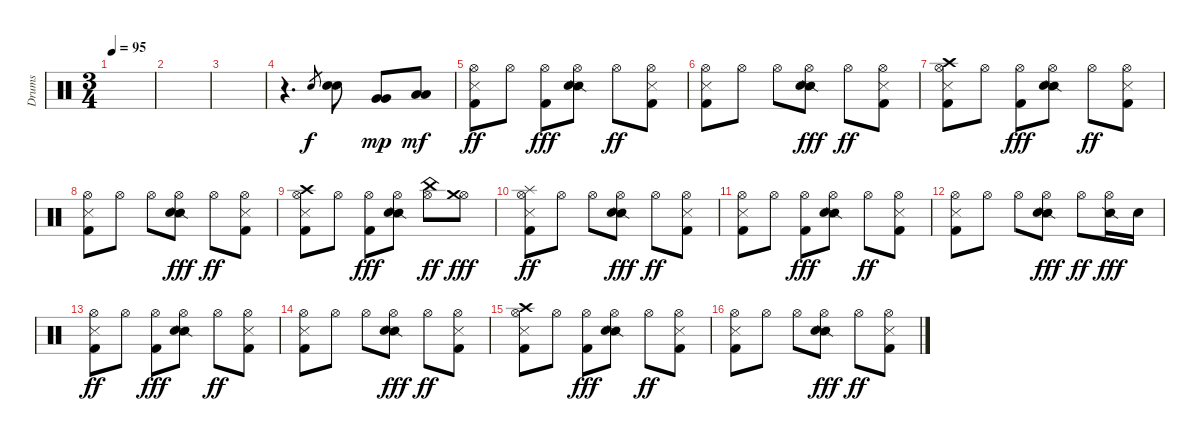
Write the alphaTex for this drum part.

\track ("Drums" "Drums") {instrument percussion}
\staff {score}
\articulation defaults
\ts (3 4)
\tempo 95
\clef neutral
\ks c
|
|
|
r.4{d} "Electric Snare (hit)".8{gr} ("Snare (hit) 2" "Electric Snare (hit)").8 ("Very Low Tom (hit)" "Very Low Tom (hit)").8{dy mp balance 0} ("Low Floor Tom (hit)" "Low Floor Tom (hit)").8{dy mf balance 16} |
("Hi-Hat (open)" "Metronome (hit)" "Kick (hit) 2").8{dy ff balance 8} "Hi-Hat (open)".8 ("Hi-Hat (open)" "Kick (hit) 2").8{dy fff} ("Hi-Hat (open)" "Snare (side stick) 2" "Electric Snare (hit)").8 "Hi-Hat (open)".8{dy ff} ("Hi-Hat (open)" "Metronome (hit)" "Kick (hit) 2").8 |
("Hi-Hat (open)" "Metronome (hit)" "Kick (hit) 2").8 "Hi-Hat (open)".8 "Hi-Hat (open)".8 ("Hi-Hat (open)" "Snare (side stick) 2" "Electric Snare (hit)").8{dy fff} "Hi-Hat (open)".8{dy ff} ("Hi-Hat (open)" "Metronome (hit)" "Kick (hit) 2").8 |
("Hi-Hat (open)" "Crash high (hit)" "Metronome (hit)" "Kick (hit) 2").8 "Hi-Hat (open)".8 ("Hi-Hat (open)" "Kick (hit) 2").8{dy fff} ("Hi-Hat (open)" "Snare (side stick) 2" "Electric Snare (hit)").8 "Hi-Hat (open)".8{dy ff} ("Hi-Hat (open)" "Metronome (hit)" "Kick (hit) 2").8 |
("Hi-Hat (open)" "Metronome (hit)" "Kick (hit) 2").8 "Hi-Hat (open)".8 "Hi-Hat (open)".8 ("Hi-Hat (open)" "Snare (side stick) 2" "Electric Snare (hit)").8{dy fff} "Hi-Hat (open)".8{dy ff} ("Hi-Hat (open)" "Metronome (hit)" "Kick (hit) 2").8 |
("Hi-Hat (open)" "Crash high (hit)" "Metronome (hit)" "Kick (hit) 2").8 "Hi-Hat (open)".8 ("Hi-Hat (open)" "Kick (hit) 2").8{dy fff} ("Hi-Hat (open)" "Snare (side stick) 2" "Electric Snare (hit)").8 ("Hi-Hat (open)" "China (hit)").8{dy ff} ("Hi-Hat (open)" "Crash medium (hit)").8{dy fff} |
("Hi-Hat (open)" "Splash (hit)" "Metronome (hit)" "Kick (hit) 2").8{dy ff} "Hi-Hat (open)".8 "Hi-Hat (open)".8 ("Hi-Hat (open)" "Snare (side stick) 2" "Electric Snare (hit)").8{dy fff} "Hi-Hat (open)".8{dy ff} ("Hi-Hat (open)" "Metronome (hit)" "Kick (hit) 2").8 |
("Hi-Hat (open)" "Metronome (hit)" "Kick (hit) 2").8 "Hi-Hat (open)".8 ("Hi-Hat (open)" "Kick (hit) 2").8{dy fff} ("Hi-Hat (open)" "Snare (side stick) 2" "Electric Snare (hit)").8 "Hi-Hat (open)".8{dy ff} ("Hi-Hat (open)" "Metronome (hit)" "Kick (hit) 2").8 |
("Hi-Hat (open)" "Metronome (hit)" "Kick (hit) 2").8 "Hi-Hat (open)".8 "Hi-Hat (open)".8 ("Hi-Hat (open)" "Snare (side stick) 2" "Electric Snare (hit)").8{dy fff} "Hi-Hat (open)".8{dy ff} ("Hi-Hat (open)" "Snare (side stick) 2").16{dy fff} "Electric Snare (hit)".16 |
("Hi-Hat (open)" "Metronome (hit)" "Kick (hit) 2").8{dy ff balance 8} "Hi-Hat (open)".8 ("Hi-Hat (open)" "Kick (hit) 2").8{dy fff} ("Hi-Hat (open)" "Snare (side stick) 2" "Electric Snare (hit)").8 "Hi-Hat (open)".8{dy ff} ("Hi-Hat (open)" "Metronome (hit)" "Kick (hit) 2").8 |
("Hi-Hat (open)" "Metronome (hit)" "Kick (hit) 2").8 "Hi-Hat (open)".8 "Hi-Hat (open)".8 ("Hi-Hat (open)" "Snare (side stick) 2" "Electric Snare (hit)").8{dy fff} "Hi-Hat (open)".8{dy ff} ("Hi-Hat (open)" "Metronome (hit)" "Kick (hit) 2").8 |
("Hi-Hat (open)" "Crash high (hit)" "Metronome (hit)" "Kick (hit) 2").8 "Hi-Hat (open)".8 ("Hi-Hat (open)" "Kick (hit) 2").8{dy fff} ("Hi-Hat (open)" "Snare (side stick) 2" "Electric Snare (hit)").8 "Hi-Hat (open)".8{dy ff} ("Hi-Hat (open)" "Metronome (hit)" "Kick (hit) 2").8 |
("Hi-Hat (open)" "Metronome (hit)" "Kick (hit) 2").8 "Hi-Hat (open)".8 "Hi-Hat (open)".8 ("Hi-Hat (open)" "Snare (side stick) 2" "Electric Snare (hit)").8{dy fff} "Hi-Hat (open)".8{dy ff} ("Hi-Hat (open)" "Metronome (hit)" "Kick (hit) 2").8
